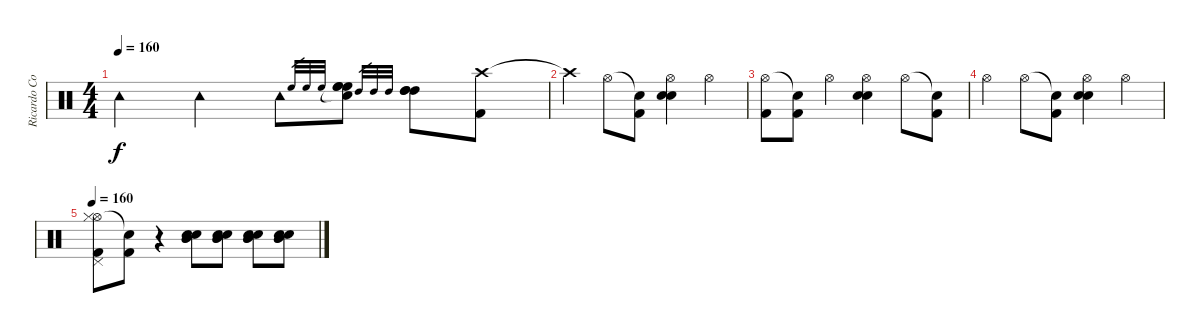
\track ("Ricardo Confessori" "Ricardo Co") {instrument percussion}
\staff {score}
\articulation defaults
\ts (4 4)
\tempo 160
\clef neutral
\ks c "Tambourine (hit)".4{dy f} "Tambourine (hit)".4 "Tambourine (hit)".8 "High Floor Tom (hit)".32{gr} "High Floor Tom (hit)".32{gr} "High Floor Tom (hit)".32{gr}
("Snare (hit)"{t} "High Floor Tom (hit)" "High Floor Tom (hit)" "High Floor Tom (hit)").8 "High Tom (hit)".32{gr} "High Tom (hit)".32{gr} "High Tom (hit)".32{gr} ("High Tom (hit)" "High Tom (hit)" "High Tom (hit)").8 ("Crash high (hit)" "Kick (hit) 2").8 |
"Crash high (hit)"{t}.4 "Hi-Hat (open)".8 ("Snare (hit)"{t} "Kick (hit) 2").8 ("Hi-Hat (open)" "Electric Snare (hit)" "Snare (hit) 2").4 "Hi-Hat (open)".4 |
("Hi-Hat (open)" "Kick (hit) 2").8 ("Snare (hit)"{t} "Kick (hit) 2").8 "Hi-Hat (open)".4 ("Hi-Hat (open)" "Electric Snare (hit)" "Snare (hit) 2").4 "Hi-Hat (open)".8 ("Snare (hit)"{t} "Kick (hit) 2").8 |
"Hi-Hat (open)".4 "Hi-Hat (open)".8 ("Snare (hit)"{t} "Kick (hit) 2").8 ("Hi-Hat (open)" "Electric Snare (hit)" "Snare (hit) 2").4 "Hi-Hat (open)".4 |
\tempo 160
("Hi-Hat (open)" "Pedal Hi-Hat (hit)" "Hi-Hat (closed)" "Kick (hit) 2").8 ("Snare (hit)"{t} "Kick (hit) 2").8 r.4 ("Electric Snare (hit)" "Snare (hit) 2" "Mid Tom (hit)" "Mid Tom (hit)").8 ("Electric Snare (hit)" "Snare (hit) 2" "Mid Tom (hit)" "Mid Tom (hit)").8 ("Electric Snare (hit)" "Snare (hit) 2" "Mid Tom (hit)" "Mid Tom (hit)").8 ("Electric Snare (hit)" "Snare (hit) 2" "Mid Tom (hit)" "Mid Tom (hit)").8
